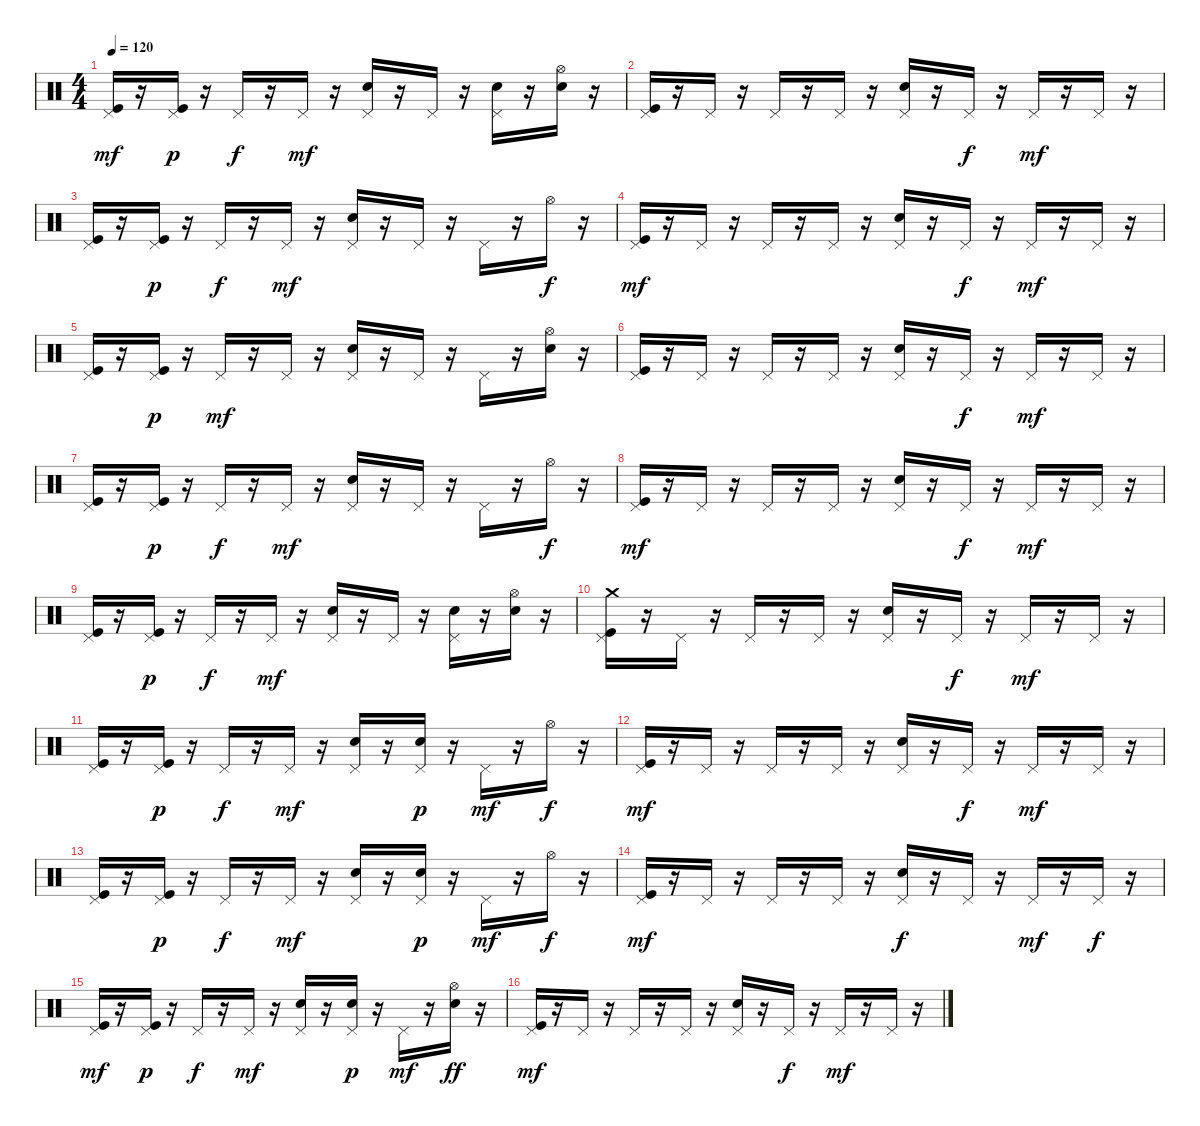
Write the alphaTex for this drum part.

\track "" {instrument percussion}
\staff {score}
\articulation defaults
\ts (4 4)
\tempo 120
\clef neutral
\ks c
("Kick (hit)" "Pedal Hi-Hat (hit)").16{dy mf} r.16 ("Kick (hit)" "Pedal Hi-Hat (hit)").16{dy p} r.16 "Pedal Hi-Hat (hit)".16{dy f} r.16 "Pedal Hi-Hat (hit)".16{dy mf} r.16 ("Snare (hit) 2" "Pedal Hi-Hat (hit)").16 r.16 "Pedal Hi-Hat (hit)".16 r.16 ("Snare (hit) 2" "Pedal Hi-Hat (hit)").16 r.16 ("Hi-Hat (open)" "Snare (hit) 2").16 r.16 |
("Kick (hit)" "Pedal Hi-Hat (hit)").16 r.16 "Pedal Hi-Hat (hit)".16 r.16 "Pedal Hi-Hat (hit)".16 r.16 "Pedal Hi-Hat (hit)".16 r.16 ("Snare (hit) 2" "Pedal Hi-Hat (hit)").16 r.16 "Pedal Hi-Hat (hit)".16{dy f} r.16 "Pedal Hi-Hat (hit)".16{dy mf} r.16 "Pedal Hi-Hat (hit)".16 r.16 |
("Kick (hit)" "Pedal Hi-Hat (hit)").16 r.16 ("Kick (hit)" "Pedal Hi-Hat (hit)").16{dy p} r.16 "Pedal Hi-Hat (hit)".16{dy f} r.16 "Pedal Hi-Hat (hit)".16{dy mf} r.16 ("Snare (hit) 2" "Pedal Hi-Hat (hit)").16 r.16 "Pedal Hi-Hat (hit)".16 r.16 "Pedal Hi-Hat (hit)".16 r.16 "Hi-Hat (open)".16{dy f} r.16 |
("Kick (hit)" "Pedal Hi-Hat (hit)").16{dy mf} r.16 "Pedal Hi-Hat (hit)".16 r.16 "Pedal Hi-Hat (hit)".16 r.16 "Pedal Hi-Hat (hit)".16 r.16 ("Snare (hit) 2" "Pedal Hi-Hat (hit)").16 r.16 "Pedal Hi-Hat (hit)".16{dy f} r.16 "Pedal Hi-Hat (hit)".16{dy mf} r.16 "Pedal Hi-Hat (hit)".16 r.16 |
("Kick (hit)" "Pedal Hi-Hat (hit)").16 r.16 ("Kick (hit)" "Pedal Hi-Hat (hit)").16{dy p} r.16 "Pedal Hi-Hat (hit)".16{dy mf} r.16 "Pedal Hi-Hat (hit)".16 r.16 ("Snare (hit) 2" "Pedal Hi-Hat (hit)").16 r.16 "Pedal Hi-Hat (hit)".16 r.16 "Pedal Hi-Hat (hit)".16 r.16 ("Hi-Hat (open)" "Snare (hit) 2").16 r.16 |
("Kick (hit)" "Pedal Hi-Hat (hit)").16 r.16 "Pedal Hi-Hat (hit)".16 r.16 "Pedal Hi-Hat (hit)".16 r.16 "Pedal Hi-Hat (hit)".16 r.16 ("Snare (hit) 2" "Pedal Hi-Hat (hit)").16 r.16 "Pedal Hi-Hat (hit)".16{dy f} r.16 "Pedal Hi-Hat (hit)".16{dy mf} r.16 "Pedal Hi-Hat (hit)".16 r.16 |
("Kick (hit)" "Pedal Hi-Hat (hit)").16 r.16 ("Kick (hit)" "Pedal Hi-Hat (hit)").16{dy p} r.16 "Pedal Hi-Hat (hit)".16{dy f} r.16 "Pedal Hi-Hat (hit)".16{dy mf} r.16 ("Snare (hit) 2" "Pedal Hi-Hat (hit)").16 r.16 "Pedal Hi-Hat (hit)".16 r.16 "Pedal Hi-Hat (hit)".16 r.16 "Hi-Hat (open)".16{dy f} r.16 |
("Kick (hit)" "Pedal Hi-Hat (hit)").16{dy mf} r.16 "Pedal Hi-Hat (hit)".16 r.16 "Pedal Hi-Hat (hit)".16 r.16 "Pedal Hi-Hat (hit)".16 r.16 ("Snare (hit) 2" "Pedal Hi-Hat (hit)").16 r.16 "Pedal Hi-Hat (hit)".16{dy f} r.16 "Pedal Hi-Hat (hit)".16{dy mf} r.16 "Pedal Hi-Hat (hit)".16 r.16 |
("Kick (hit)" "Pedal Hi-Hat (hit)").16 r.16 ("Kick (hit)" "Pedal Hi-Hat (hit)").16{dy p} r.16 "Pedal Hi-Hat (hit)".16{dy f} r.16 "Pedal Hi-Hat (hit)".16{dy mf} r.16 ("Snare (hit) 2" "Pedal Hi-Hat (hit)").16 r.16 "Pedal Hi-Hat (hit)".16 r.16 ("Snare (hit) 2" "Pedal Hi-Hat (hit)").16 r.16 ("Hi-Hat (open)" "Snare (hit) 2").16 r.16 |
("Crash medium (hit)" "Kick (hit)" "Pedal Hi-Hat (hit)").16 r.16 "Pedal Hi-Hat (hit)".16 r.16 "Pedal Hi-Hat (hit)".16 r.16 "Pedal Hi-Hat (hit)".16 r.16 ("Snare (hit) 2" "Pedal Hi-Hat (hit)").16 r.16 "Pedal Hi-Hat (hit)".16{dy f} r.16 "Pedal Hi-Hat (hit)".16{dy mf} r.16 "Pedal Hi-Hat (hit)".16 r.16 |
("Kick (hit)" "Pedal Hi-Hat (hit)").16 r.16 ("Kick (hit)" "Pedal Hi-Hat (hit)").16{dy p} r.16 "Pedal Hi-Hat (hit)".16{dy f} r.16 "Pedal Hi-Hat (hit)".16{dy mf} r.16 ("Snare (hit) 2" "Pedal Hi-Hat (hit)").16 r.16 ("Snare (hit) 2" "Pedal Hi-Hat (hit)").16{dy p} r.16 "Pedal Hi-Hat (hit)".16{dy mf} r.16 "Hi-Hat (open)".16{dy f} r.16 |
("Kick (hit)" "Pedal Hi-Hat (hit)").16{dy mf} r.16 "Pedal Hi-Hat (hit)".16 r.16 "Pedal Hi-Hat (hit)".16 r.16 "Pedal Hi-Hat (hit)".16 r.16 ("Snare (hit) 2" "Pedal Hi-Hat (hit)").16 r.16 "Pedal Hi-Hat (hit)".16{dy f} r.16 "Pedal Hi-Hat (hit)".16{dy mf} r.16 "Pedal Hi-Hat (hit)".16 r.16 |
("Kick (hit)" "Pedal Hi-Hat (hit)").16 r.16 ("Kick (hit)" "Pedal Hi-Hat (hit)").16{dy p} r.16 "Pedal Hi-Hat (hit)".16{dy f} r.16 "Pedal Hi-Hat (hit)".16{dy mf} r.16 ("Snare (hit) 2" "Pedal Hi-Hat (hit)").16 r.16 ("Snare (hit) 2" "Pedal Hi-Hat (hit)").16{dy p} r.16 "Pedal Hi-Hat (hit)".16{dy mf} r.16 "Hi-Hat (open)".16{dy f} r.16 |
("Kick (hit)" "Pedal Hi-Hat (hit)").16{dy mf} r.16 "Pedal Hi-Hat (hit)".16 r.16 "Pedal Hi-Hat (hit)".16 r.16 "Pedal Hi-Hat (hit)".16 r.16 ("Snare (hit) 2" "Pedal Hi-Hat (hit)").16{dy f} r.16 "Pedal Hi-Hat (hit)".16 r.16 "Pedal Hi-Hat (hit)".16{dy mf} r.16 "Pedal Hi-Hat (hit)".16{dy f} r.16 |
("Kick (hit)" "Pedal Hi-Hat (hit)").16{dy mf} r.16 ("Kick (hit)" "Pedal Hi-Hat (hit)").16{dy p} r.16 "Pedal Hi-Hat (hit)".16{dy f} r.16 "Pedal Hi-Hat (hit)".16{dy mf} r.16 ("Snare (hit) 2" "Pedal Hi-Hat (hit)").16 r.16 ("Snare (hit) 2" "Pedal Hi-Hat (hit)").16{dy p} r.16 "Pedal Hi-Hat (hit)".16{dy mf} r.16 ("Hi-Hat (open)" "Snare (hit) 2").16{dy ff} r.16 |
("Kick (hit)" "Pedal Hi-Hat (hit)").16{dy mf} r.16 "Pedal Hi-Hat (hit)".16 r.16 "Pedal Hi-Hat (hit)".16 r.16 "Pedal Hi-Hat (hit)".16 r.16 ("Snare (hit) 2" "Pedal Hi-Hat (hit)").16 r.16 "Pedal Hi-Hat (hit)".16{dy f} r.16 "Pedal Hi-Hat (hit)".16{dy mf} r.16 "Pedal Hi-Hat (hit)".16 r.16
